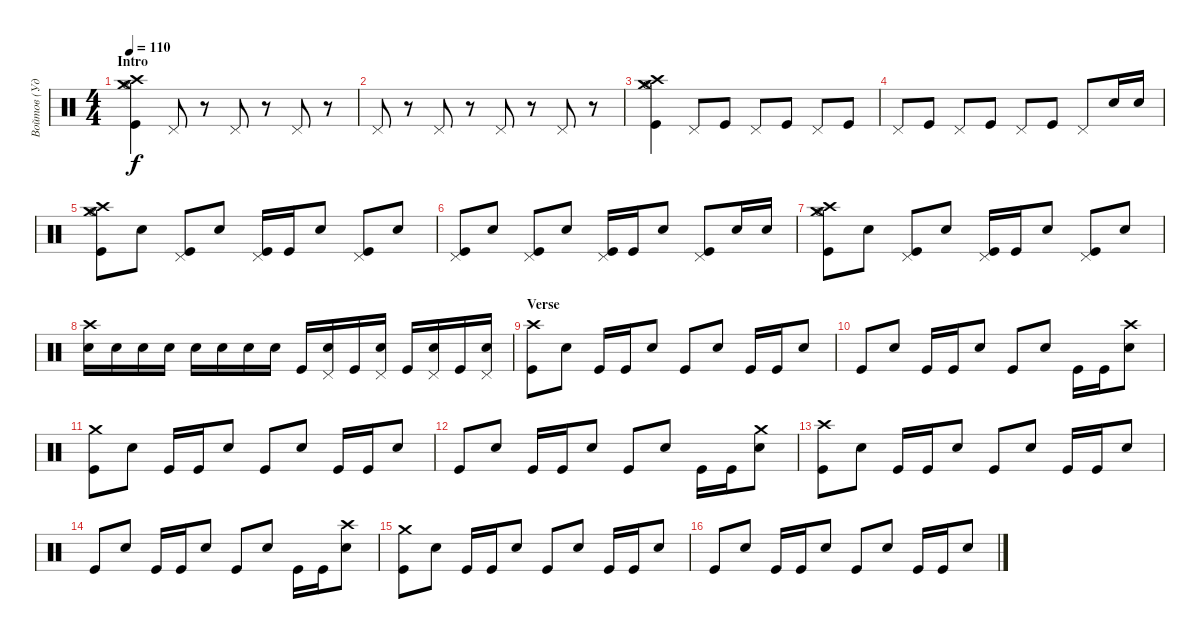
\track ("Войтов (Ударные)" "Войтов (Уд") {instrument percussion}
\staff {score}
\articulation defaults
\ts (4 4)
\section ("" "Intro")
\tempo 110
\clef neutral
\ks c
("Crash high (hit)" "Crash medium (hit)" "Hi-Hat (open)" "Kick (hit)").4{dy f} "Pedal Hi-Hat (hit)"{tr (44 16)}.8 r.8 "Pedal Hi-Hat (hit)"{tr (44 16)}.8 r.8 "Pedal Hi-Hat (hit)"{tr (44 16)}.8 r.8 |
"Pedal Hi-Hat (hit)"{tr (44 16)}.8 r.8 "Pedal Hi-Hat (hit)"{tr (44 16)}.8 r.8 "Pedal Hi-Hat (hit)"{tr (44 16)}.8 r.8 "Pedal Hi-Hat (hit)"{tr (44 16)}.8 r.8 |
("Crash high (hit)" "Crash medium (hit)" "Hi-Hat (open)" "Kick (hit)").4 "Pedal Hi-Hat (hit)"{tr (44 16)}.8 "Kick (hit)".8 "Pedal Hi-Hat (hit)"{tr (44 16)}.8 "Kick (hit)".8 "Pedal Hi-Hat (hit)"{tr (44 16)}.8 "Kick (hit)".8 |
"Pedal Hi-Hat (hit)"{tr (44 16)}.8 "Kick (hit)".8 "Pedal Hi-Hat (hit)"{tr (44 16)}.8 "Kick (hit)".8 "Pedal Hi-Hat (hit)"{tr (44 16)}.8 "Kick (hit)".8 "Pedal Hi-Hat (hit)"{tr (44 16)}.8 "Electric Snare (hit)".16 "Electric Snare (hit)".16 |
("Crash high (hit)" "Crash medium (hit)" "Hi-Hat (open)"{tr (44 16)} "Kick (hit)").8 "Electric Snare (hit)".8 ("Pedal Hi-Hat (hit)"{tr (44 16)} "Kick (hit)").8 "Electric Snare (hit)".8 ("Pedal Hi-Hat (hit)"{tr (44 16)} "Kick (hit)").16 "Kick (hit)".16 "Electric Snare (hit)".8 ("Pedal Hi-Hat (hit)"{tr (44 16)} "Kick (hit)").8 "Electric Snare (hit)".8 |
("Pedal Hi-Hat (hit)"{tr (44 16)} "Kick (hit)").8 "Electric Snare (hit)".8 ("Pedal Hi-Hat (hit)"{tr (44 16)} "Kick (hit)").8 "Electric Snare (hit)".8 ("Pedal Hi-Hat (hit)"{tr (44 16)} "Kick (hit)").16 "Kick (hit)".16 "Electric Snare (hit)".8 ("Pedal Hi-Hat (hit)"{tr (44 16)} "Kick (hit)").8 "Electric Snare (hit)".16 "Electric Snare (hit)".16 |
("Crash medium (hit)" "Crash high (hit)" "Hi-Hat (open)" "Kick (hit)").8 "Electric Snare (hit)".8 ("Pedal Hi-Hat (hit)"{tr (44 16)} "Kick (hit)").8 "Electric Snare (hit)".8 ("Pedal Hi-Hat (hit)"{tr (44 16)} "Kick (hit)").16 "Kick (hit)".16 "Electric Snare (hit)".8 ("Pedal Hi-Hat (hit)"{tr (44 16)} "Kick (hit)").8 "Electric Snare (hit)".8 |
("Crash high (hit)" "Electric Snare (hit)").16 "Electric Snare (hit)".16 "Electric Snare (hit)".16 "Electric Snare (hit)".16 "Electric Snare (hit)".16 "Electric Snare (hit)".16 "Electric Snare (hit)".16 "Electric Snare (hit)".16 "Kick (hit)".16 ("Pedal Hi-Hat (hit)" "Electric Snare (hit)").16 "Kick (hit)".16 ("Pedal Hi-Hat (hit)" "Electric Snare (hit)").16 "Kick (hit)".16 ("Pedal Hi-Hat (hit)" "Electric Snare (hit)").16 "Kick (hit)".16 ("Pedal Hi-Hat (hit)" "Electric Snare (hit)").16 |
\section ("" "Verse")
("Crash high (hit)" "Kick (hit)").8 "Electric Snare (hit)".8 "Kick (hit)".16 "Kick (hit)".16 "Electric Snare (hit)".8 "Kick (hit)".8 "Electric Snare (hit)".8 "Kick (hit)".16 "Kick (hit)".16 "Electric Snare (hit)".8 |
"Kick (hit)".8 "Electric Snare (hit)".8 "Kick (hit)".16 "Kick (hit)".16 "Electric Snare (hit)".8 "Kick (hit)".8 "Electric Snare (hit)".8 "Kick (hit)".16 "Kick (hit)".16 ("Crash high (hit)" "Electric Snare (hit)").8 |
("Crash medium (hit)" "Kick (hit)").8 "Electric Snare (hit)".8 "Kick (hit)".16 "Kick (hit)".16 "Electric Snare (hit)".8 "Kick (hit)".8 "Electric Snare (hit)".8 "Kick (hit)".16 "Kick (hit)".16 "Electric Snare (hit)".8 |
"Kick (hit)".8 "Electric Snare (hit)".8 "Kick (hit)".16 "Kick (hit)".16 "Electric Snare (hit)".8 "Kick (hit)".8 "Electric Snare (hit)".8 "Kick (hit)".16 "Kick (hit)".16 ("Crash medium (hit)" "Electric Snare (hit)").8 |
("Crash high (hit)" "Kick (hit)").8 "Electric Snare (hit)".8 "Kick (hit)".16 "Kick (hit)".16 "Electric Snare (hit)".8 "Kick (hit)".8 "Electric Snare (hit)".8 "Kick (hit)".16 "Kick (hit)".16 "Electric Snare (hit)".8 |
"Kick (hit)".8 "Electric Snare (hit)".8 "Kick (hit)".16 "Kick (hit)".16 "Electric Snare (hit)".8 "Kick (hit)".8 "Electric Snare (hit)".8 "Kick (hit)".16 "Kick (hit)".16 ("Crash high (hit)" "Electric Snare (hit)").8 |
("Crash medium (hit)" "Kick (hit)").8 "Electric Snare (hit)".8 "Kick (hit)".16 "Kick (hit)".16 "Electric Snare (hit)".8 "Kick (hit)".8 "Electric Snare (hit)".8 "Kick (hit)".16 "Kick (hit)".16 "Electric Snare (hit)".8 |
"Kick (hit)".8 "Electric Snare (hit)".8 "Kick (hit)".16 "Kick (hit)".16 "Electric Snare (hit)".8 "Kick (hit)".8 "Electric Snare (hit)".8 "Kick (hit)".16 "Kick (hit)".16 "Electric Snare (hit)".8
